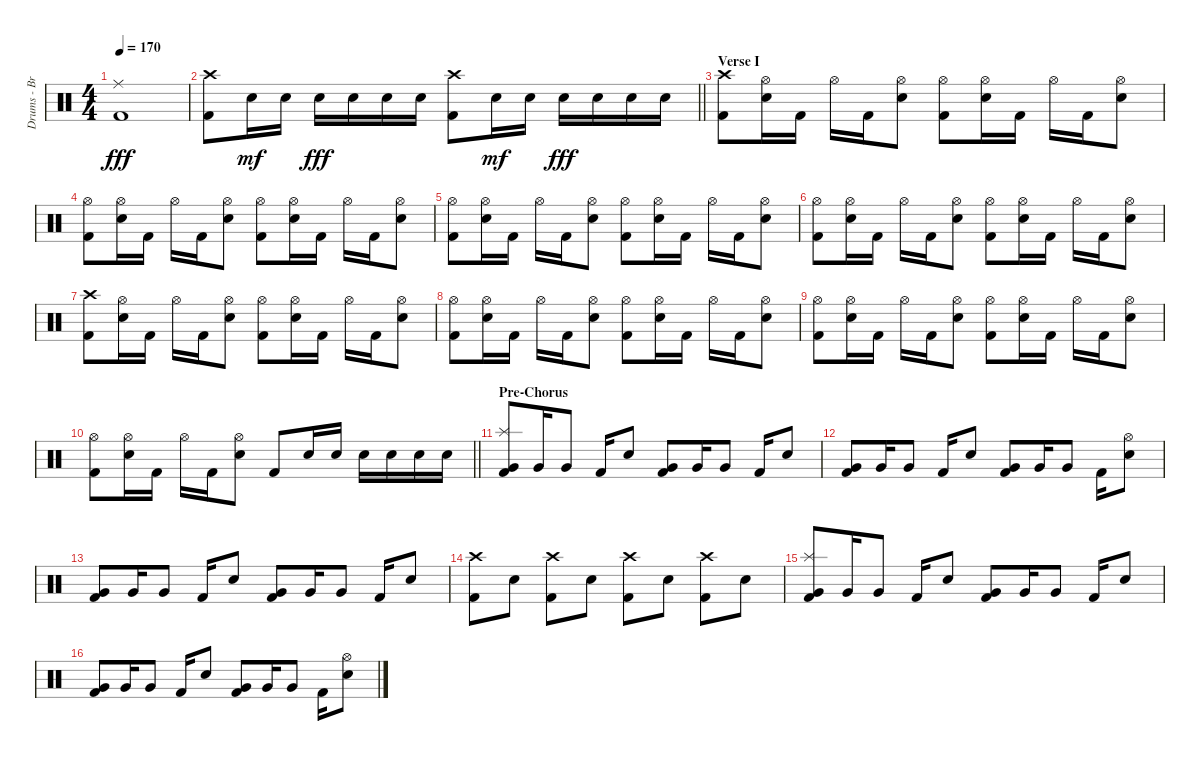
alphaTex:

\track ("Drums - Brandon" "Drums - Br") {instrument percussion}
\staff {score}
\articulation defaults
\ts (4 4)
\tempo 170
\clef neutral
\ks c
("Ride (middle)" "Kick (hit) 2").1{dy fff} |
\barLineRight lightlight
("Crash high (hit)" "Kick (hit) 2").8 "Electric Snare (hit)".16{dy mf} "Electric Snare (hit)".16 "Electric Snare (hit)".16{dy fff} "Electric Snare (hit)".16 "Electric Snare (hit)".16 "Electric Snare (hit)".16 ("Crash high (hit)" "Kick (hit) 2").8 "Electric Snare (hit)".16{dy mf} "Electric Snare (hit)".16 "Electric Snare (hit)".16{dy fff} "Electric Snare (hit)".16 "Electric Snare (hit)".16 "Electric Snare (hit)".16 |
\section ("" "Verse I")
("Crash high (hit)" "Kick (hit) 2").8 ("Hi-Hat (open)" "Electric Snare (hit)").16 "Kick (hit) 2".16 "Hi-Hat (open)".16 "Kick (hit) 2".16 ("Hi-Hat (open)" "Electric Snare (hit)").8 ("Hi-Hat (open)" "Kick (hit) 2").8 ("Hi-Hat (open)" "Electric Snare (hit)").16 "Kick (hit) 2".16 "Hi-Hat (open)".16 "Kick (hit) 2".16 ("Hi-Hat (open)" "Electric Snare (hit)").8 |
("Hi-Hat (open)" "Kick (hit) 2").8 ("Hi-Hat (open)" "Electric Snare (hit)").16 "Kick (hit) 2".16 "Hi-Hat (open)".16 "Kick (hit) 2".16 ("Hi-Hat (open)" "Electric Snare (hit)").8 ("Hi-Hat (open)" "Kick (hit) 2").8 ("Hi-Hat (open)" "Electric Snare (hit)").16 "Kick (hit) 2".16 "Hi-Hat (open)".16 "Kick (hit) 2".16 ("Hi-Hat (open)" "Electric Snare (hit)").8 |
("Hi-Hat (open)" "Kick (hit) 2").8 ("Hi-Hat (open)" "Electric Snare (hit)").16 "Kick (hit) 2".16 "Hi-Hat (open)".16 "Kick (hit) 2".16 ("Hi-Hat (open)" "Electric Snare (hit)").8 ("Hi-Hat (open)" "Kick (hit) 2").8 ("Hi-Hat (open)" "Electric Snare (hit)").16 "Kick (hit) 2".16 "Hi-Hat (open)".16 "Kick (hit) 2".16 ("Hi-Hat (open)" "Electric Snare (hit)").8 |
("Hi-Hat (open)" "Kick (hit) 2").8 ("Hi-Hat (open)" "Electric Snare (hit)").16 "Kick (hit) 2".16 "Hi-Hat (open)".16 "Kick (hit) 2".16 ("Hi-Hat (open)" "Electric Snare (hit)").8 ("Hi-Hat (open)" "Kick (hit) 2").8 ("Hi-Hat (open)" "Electric Snare (hit)").16 "Kick (hit) 2".16 "Hi-Hat (open)".16 "Kick (hit) 2".16 ("Hi-Hat (open)" "Electric Snare (hit)").8 |
("Crash high (hit)" "Kick (hit) 2").8 ("Hi-Hat (open)" "Electric Snare (hit)").16 "Kick (hit) 2".16 "Hi-Hat (open)".16 "Kick (hit) 2".16 ("Hi-Hat (open)" "Electric Snare (hit)").8 ("Hi-Hat (open)" "Kick (hit) 2").8 ("Hi-Hat (open)" "Electric Snare (hit)").16 "Kick (hit) 2".16 "Hi-Hat (open)".16 "Kick (hit) 2".16 ("Hi-Hat (open)" "Electric Snare (hit)").8 |
("Hi-Hat (open)" "Kick (hit) 2").8 ("Hi-Hat (open)" "Electric Snare (hit)").16 "Kick (hit) 2".16 "Hi-Hat (open)".16 "Kick (hit) 2".16 ("Hi-Hat (open)" "Electric Snare (hit)").8 ("Hi-Hat (open)" "Kick (hit) 2").8 ("Hi-Hat (open)" "Electric Snare (hit)").16 "Kick (hit) 2".16 "Hi-Hat (open)".16 "Kick (hit) 2".16 ("Hi-Hat (open)" "Electric Snare (hit)").8 |
("Hi-Hat (open)" "Kick (hit) 2").8 ("Hi-Hat (open)" "Electric Snare (hit)").16 "Kick (hit) 2".16 "Hi-Hat (open)".16 "Kick (hit) 2".16 ("Hi-Hat (open)" "Electric Snare (hit)").8 ("Hi-Hat (open)" "Kick (hit) 2").8 ("Hi-Hat (open)" "Electric Snare (hit)").16 "Kick (hit) 2".16 "Hi-Hat (open)".16 "Kick (hit) 2".16 ("Hi-Hat (open)" "Electric Snare (hit)").8 |
\barLineRight lightlight
("Hi-Hat (open)" "Kick (hit) 2").8 ("Hi-Hat (open)" "Electric Snare (hit)").16 "Kick (hit) 2".16 "Hi-Hat (open)".16 "Kick (hit) 2".16 ("Hi-Hat (open)" "Electric Snare (hit)").8 "Kick (hit) 2".8 "Electric Snare (hit)".16 "Electric Snare (hit)".16 "Electric Snare (hit)".16 "Electric Snare (hit)".16 "Electric Snare (hit)".16 "Electric Snare (hit)".16 |
\section ("" "Pre-Chorus")
("Splash (hit)" "Very Low Tom (hit)" "Kick (hit) 2").8 "Very Low Tom (hit)".16 "Very Low Tom (hit)".8 "Kick (hit) 2".16 "Electric Snare (hit)".8 ("Very Low Tom (hit)" "Kick (hit) 2").8 "Very Low Tom (hit)".16 "Very Low Tom (hit)".8 "Kick (hit) 2".16 "Electric Snare (hit)".8 |
("Very Low Tom (hit)" "Kick (hit) 2").8 "Very Low Tom (hit)".16 "Very Low Tom (hit)".8 "Kick (hit) 2".16 "Electric Snare (hit)".8 ("Very Low Tom (hit)" "Kick (hit) 2").8 "Very Low Tom (hit)".16 "Very Low Tom (hit)".8 "Kick (hit) 2".16 ("Hi-Hat (open)" "Electric Snare (hit)").8 |
("Very Low Tom (hit)" "Kick (hit) 2").8 "Very Low Tom (hit)".16 "Very Low Tom (hit)".8 "Kick (hit) 2".16 "Electric Snare (hit)".8 ("Very Low Tom (hit)" "Kick (hit) 2").8 "Very Low Tom (hit)".16 "Very Low Tom (hit)".8 "Kick (hit) 2".16 "Electric Snare (hit)".8 |
("Crash high (hit)" "Kick (hit) 2").8 "Electric Snare (hit)".8 ("Crash high (hit)" "Kick (hit) 2").8 "Electric Snare (hit)".8 ("Crash high (hit)" "Kick (hit) 2").8 "Electric Snare (hit)".8 ("Crash high (hit)" "Kick (hit) 2").8 "Electric Snare (hit)".8 |
("Splash (hit)" "Very Low Tom (hit)" "Kick (hit) 2").8 "Very Low Tom (hit)".16 "Very Low Tom (hit)".8 "Kick (hit) 2".16 "Electric Snare (hit)".8 ("Very Low Tom (hit)" "Kick (hit) 2").8 "Very Low Tom (hit)".16 "Very Low Tom (hit)".8 "Kick (hit) 2".16 "Electric Snare (hit)".8 |
("Very Low Tom (hit)" "Kick (hit) 2").8 "Very Low Tom (hit)".16 "Very Low Tom (hit)".8 "Kick (hit) 2".16 "Electric Snare (hit)".8 ("Very Low Tom (hit)" "Kick (hit) 2").8 "Very Low Tom (hit)".16 "Very Low Tom (hit)".8 "Kick (hit) 2".16 ("Hi-Hat (open)" "Electric Snare (hit)").8
